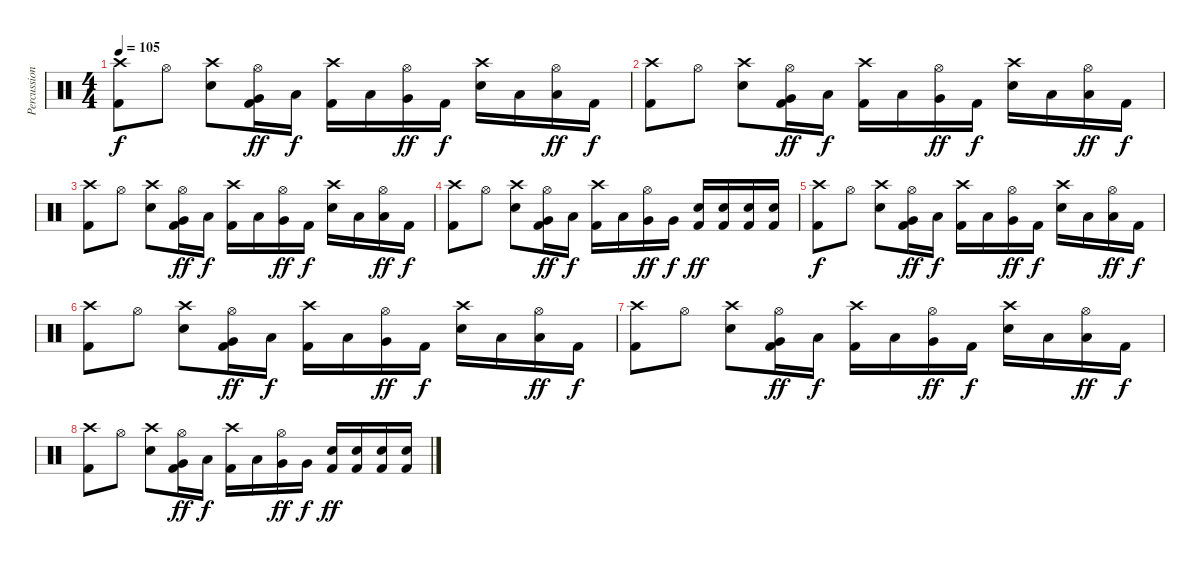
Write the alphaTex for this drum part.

\track ("Percussion" "Percussion") {instrument percussion}
\staff {score}
\articulation defaults
\ts (4 4)
\tempo 105
\clef neutral
\ks c
("Crash high (hit)" "Kick (hit) 2").8{dy f} "Hi-Hat (open)".8 ("Crash high (hit)" "Electric Snare (hit)").8 ("Very Low Tom (hit)" "Hi-Hat (open)" "Kick (hit) 2").16{dy ff} "Low Tom (hit)".16{dy f} ("Crash high (hit)" "Kick (hit) 2").16 "Low Tom (hit)".16 ("Very Low Tom (hit)" "Hi-Hat (open)").16{dy ff} "Kick (hit) 2".16{dy f} ("Crash high (hit)" "Electric Snare (hit)").16 "Low Tom (hit)".16 ("Low Tom (hit)" "Hi-Hat (open)").16{dy ff} "Kick (hit) 2".16{dy f} |
("Crash high (hit)" "Kick (hit) 2").8 "Hi-Hat (open)".8 ("Crash high (hit)" "Electric Snare (hit)").8 ("Very Low Tom (hit)" "Hi-Hat (open)" "Kick (hit) 2").16{dy ff} "Low Tom (hit)".16{dy f} ("Crash high (hit)" "Kick (hit) 2").16 "Low Tom (hit)".16 ("Very Low Tom (hit)" "Hi-Hat (open)").16{dy ff} "Kick (hit) 2".16{dy f} ("Crash high (hit)" "Electric Snare (hit)").16 "Low Tom (hit)".16 ("Low Tom (hit)" "Hi-Hat (open)").16{dy ff} "Kick (hit) 2".16{dy f} |
("Crash high (hit)" "Kick (hit) 2").8 "Hi-Hat (open)".8 ("Crash high (hit)" "Electric Snare (hit)").8 ("Very Low Tom (hit)" "Hi-Hat (open)" "Kick (hit) 2").16{dy ff} "Low Tom (hit)".16{dy f} ("Crash high (hit)" "Kick (hit) 2").16 "Low Tom (hit)".16 ("Very Low Tom (hit)" "Hi-Hat (open)").16{dy ff} "Kick (hit) 2".16{dy f} ("Crash high (hit)" "Electric Snare (hit)").16 "Low Tom (hit)".16 ("Low Tom (hit)" "Hi-Hat (open)").16{dy ff} "Kick (hit) 2".16{dy f} |
("Crash high (hit)" "Kick (hit) 2").8 "Hi-Hat (open)".8 ("Crash high (hit)" "Electric Snare (hit)").8 ("Very Low Tom (hit)" "Hi-Hat (open)" "Kick (hit) 2").16{dy ff} "Low Tom (hit)".16{dy f} ("Crash high (hit)" "Kick (hit) 2").16 "Low Tom (hit)".16 ("Very Low Tom (hit)" "Hi-Hat (open)").16{dy ff} "Very Low Tom (hit)".16{dy f} ("Electric Snare (hit)" "Kick (hit) 2").16{dy ff} ("Electric Snare (hit)" "Kick (hit) 2").16 ("Electric Snare (hit)" "Kick (hit) 2").16 ("Electric Snare (hit)" "Kick (hit) 2").16 |
("Crash high (hit)" "Kick (hit) 2").8{dy f volume 0} "Hi-Hat (open)".8 ("Crash high (hit)" "Electric Snare (hit)").8 ("Very Low Tom (hit)" "Hi-Hat (open)" "Kick (hit) 2").16{dy ff} "Low Tom (hit)".16{dy f} ("Crash high (hit)" "Kick (hit) 2").16 "Low Tom (hit)".16 ("Very Low Tom (hit)" "Hi-Hat (open)").16{dy ff} "Kick (hit) 2".16{dy f} ("Crash high (hit)" "Electric Snare (hit)").16 "Low Tom (hit)".16 ("Low Tom (hit)" "Hi-Hat (open)").16{dy ff} "Kick (hit) 2".16{dy f} |
("Crash high (hit)" "Kick (hit) 2").8 "Hi-Hat (open)".8 ("Crash high (hit)" "Electric Snare (hit)").8 ("Very Low Tom (hit)" "Hi-Hat (open)" "Kick (hit) 2").16{dy ff} "Low Tom (hit)".16{dy f} ("Crash high (hit)" "Kick (hit) 2").16 "Low Tom (hit)".16 ("Very Low Tom (hit)" "Hi-Hat (open)").16{dy ff} "Kick (hit) 2".16{dy f} ("Crash high (hit)" "Electric Snare (hit)").16 "Low Tom (hit)".16 ("Low Tom (hit)" "Hi-Hat (open)").16{dy ff} "Kick (hit) 2".16{dy f} |
("Crash high (hit)" "Kick (hit) 2").8 "Hi-Hat (open)".8 ("Crash high (hit)" "Electric Snare (hit)").8 ("Very Low Tom (hit)" "Hi-Hat (open)" "Kick (hit) 2").16{dy ff} "Low Tom (hit)".16{dy f} ("Crash high (hit)" "Kick (hit) 2").16 "Low Tom (hit)".16 ("Very Low Tom (hit)" "Hi-Hat (open)").16{dy ff} "Kick (hit) 2".16{dy f} ("Crash high (hit)" "Electric Snare (hit)").16 "Low Tom (hit)".16 ("Low Tom (hit)" "Hi-Hat (open)").16{dy ff} "Kick (hit) 2".16{dy f} |
("Crash high (hit)" "Kick (hit) 2").8 "Hi-Hat (open)".8 ("Crash high (hit)" "Electric Snare (hit)").8 ("Very Low Tom (hit)" "Hi-Hat (open)" "Kick (hit) 2").16{dy ff} "Low Tom (hit)".16{dy f} ("Crash high (hit)" "Kick (hit) 2").16 "Low Tom (hit)".16 ("Very Low Tom (hit)" "Hi-Hat (open)").16{dy ff} "Very Low Tom (hit)".16{dy f} ("Electric Snare (hit)" "Kick (hit) 2").16{dy ff} ("Electric Snare (hit)" "Kick (hit) 2").16 ("Electric Snare (hit)" "Kick (hit) 2").16 ("Electric Snare (hit)" "Kick (hit) 2").16
